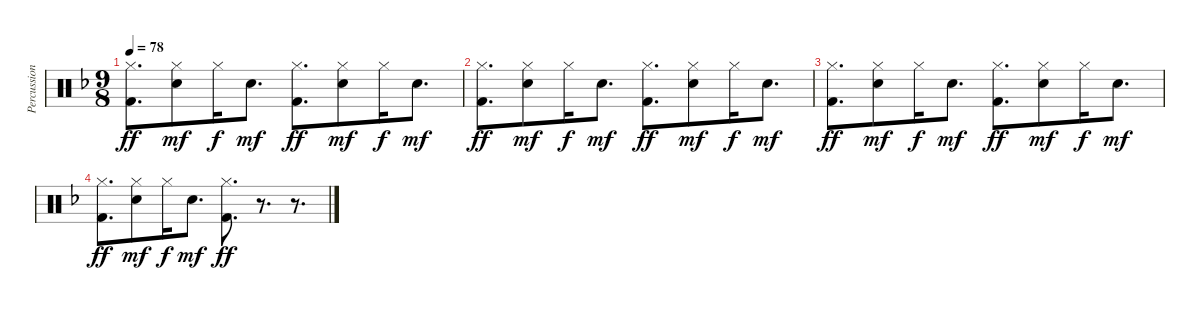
\track ("Percussion" "Percussion") {instrument percussion}
\staff {score}
\articulation defaults
\ts (9 8)
\tempo 78
\clef neutral
\ks f
("Hi-Hat (closed)" "Kick (hit) 2").8{d dy ff} ("Hi-Hat (closed)" "Electric Snare (hit)").8{dy mf} "Hi-Hat (closed)".16{dy f beam merge} "Electric Snare (hit)".8{d dy mf beam split} ("Hi-Hat (closed)" "Kick (hit) 2").8{d dy ff beam merge} ("Hi-Hat (closed)" "Electric Snare (hit)").8{dy mf} "Hi-Hat (closed)".16{dy f} "Electric Snare (hit)".8{d dy mf} |
("Hi-Hat (closed)" "Kick (hit) 2").8{d dy ff} ("Hi-Hat (closed)" "Electric Snare (hit)").8{dy mf} "Hi-Hat (closed)".16{dy f beam merge} "Electric Snare (hit)".8{d dy mf beam split} ("Hi-Hat (closed)" "Kick (hit) 2").8{d dy ff beam merge} ("Hi-Hat (closed)" "Electric Snare (hit)").8{dy mf} "Hi-Hat (closed)".16{dy f} "Electric Snare (hit)".8{d dy mf} |
("Hi-Hat (closed)" "Kick (hit) 2").8{d dy ff} ("Hi-Hat (closed)" "Electric Snare (hit)").8{dy mf} "Hi-Hat (closed)".16{dy f beam merge} "Electric Snare (hit)".8{d dy mf beam split} ("Hi-Hat (closed)" "Kick (hit) 2").8{d dy ff beam merge} ("Hi-Hat (closed)" "Electric Snare (hit)").8{dy mf} "Hi-Hat (closed)".16{dy f} "Electric Snare (hit)".8{d dy mf} |
("Hi-Hat (closed)" "Kick (hit) 2").8{d dy ff} ("Hi-Hat (closed)" "Electric Snare (hit)").8{dy mf} "Hi-Hat (closed)".16{dy f beam merge} "Electric Snare (hit)".8{d dy mf beam split} ("Hi-Hat (closed)" "Kick (hit) 2").8{d dy ff beam merge} r.8{d} r.8{d}
